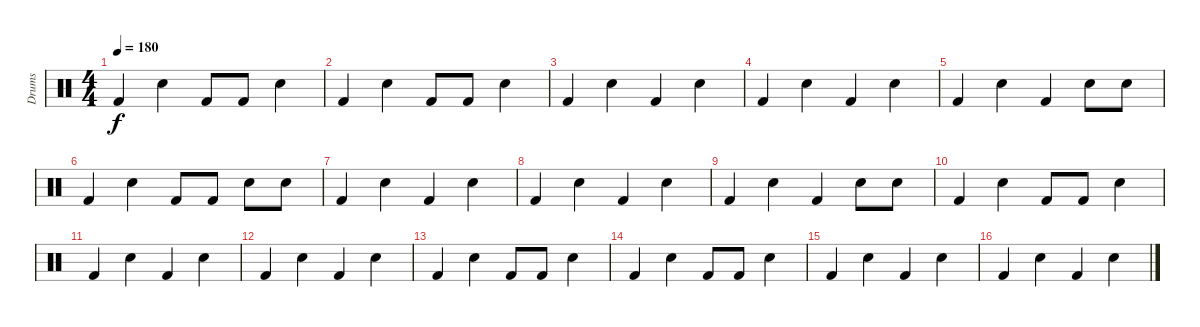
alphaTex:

\track ("Drums" "Drums") {instrument percussion}
\staff {score}
\articulation defaults
\ts (4 4)
\tempo 180
\clef neutral
\ks c "Kick (hit) 2".4{dy f} "Snare (hit) 2".4 "Kick (hit) 2".8 "Kick (hit) 2".8 "Snare (hit) 2".4
|
"Kick (hit) 2".4 "Snare (hit) 2".4 "Kick (hit) 2".8 "Kick (hit) 2".8 "Metronome (bell)".4 |
"Kick (hit) 2".4 "Snare (hit) 2".4 "Kick (hit) 2".4 "Snare (hit) 2".4 |
"Kick (hit) 2".4 "Snare (hit) 2".4 "Kick (hit) 2".4 "Snare (hit) 2".4 |
"Kick (hit) 2".4 "Snare (hit) 2".4 "Kick (hit) 2".4 "Snare (hit) 2".8 "Snare (hit) 2".8 |
"Kick (hit) 2".4 "Snare (hit) 2".4 "Kick (hit) 2".8 "Kick (hit) 2".8 "Snare (hit) 2".8 "Snare (hit) 2".8 |
"Kick (hit) 2".4 "Snare (hit) 2".4 "Kick (hit) 2".4 "Snare (hit) 2".4 |
"Kick (hit) 2".4 "Snare (hit) 2".4 "Kick (hit) 2".4 "Snare (hit) 2".4 |
"Kick (hit) 2".4 "Snare (hit) 2".4 "Kick (hit) 2".4 "Snare (hit) 2".8 "Snare (hit) 2".8 |
"Kick (hit) 2".4 "Snare (hit) 2".4 "Kick (hit) 2".8 "Kick (hit) 2".8 "Snare (hit) 2".4 |
"Kick (hit) 2".4 "Snare (hit) 2".4 "Kick (hit) 2".4 "Snare (hit) 2".4 |
"Kick (hit) 2".4 "Snare (hit) 2".4 "Kick (hit) 2".4 "Snare (hit) 2".4 |
"Kick (hit) 2".4 "Snare (hit) 2".4 "Kick (hit) 2".8 "Kick (hit) 2".8 "Snare (hit) 2".4 |
"Kick (hit) 2".4 "Snare (hit) 2".4 "Kick (hit) 2".8 "Kick (hit) 2".8 "Metronome (bell)".4 |
"Kick (hit) 2".4 "Snare (hit) 2".4 "Kick (hit) 2".4 "Snare (hit) 2".4 |
"Kick (hit) 2".4 "Snare (hit) 2".4 "Kick (hit) 2".4 "Snare (hit) 2".4
